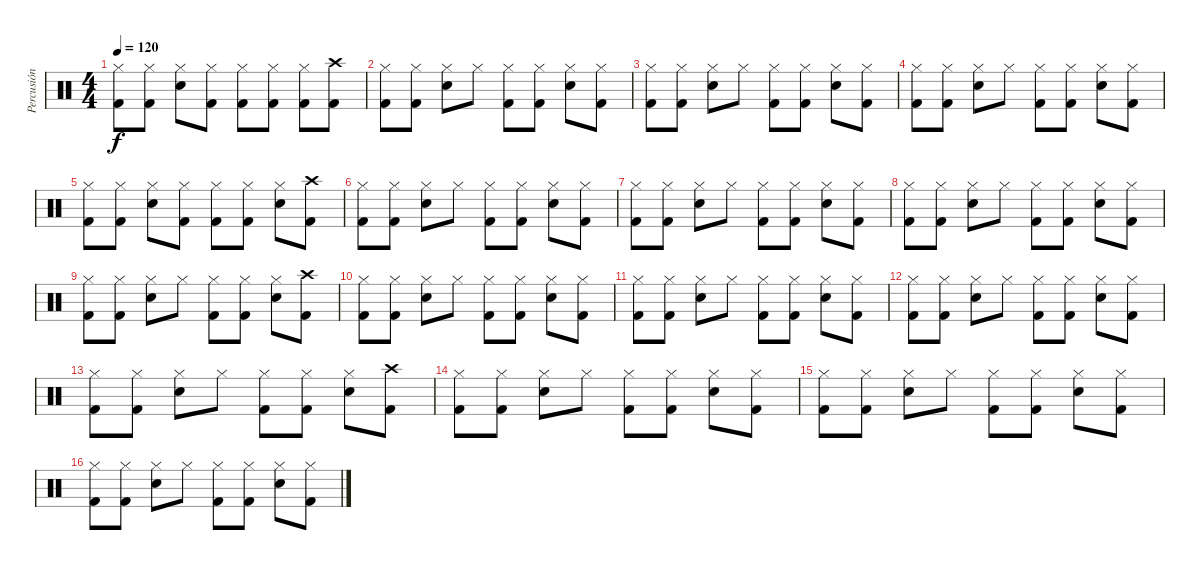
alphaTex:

\track ("Percusión" "Percusión") {instrument percussion}
\staff {score}
\articulation defaults
\ts (4 4)
\tempo 120
\clef neutral
\ks c
("Hi-Hat (closed)" "Kick (hit) 2").8{dy f} ("Hi-Hat (closed)" "Kick (hit) 2").8 ("Hi-Hat (closed)" "Snare (hit) 2").8 ("Hi-Hat (closed)" "Kick (hit) 2").8 ("Hi-Hat (closed)" "Kick (hit) 2").8 ("Hi-Hat (closed)" "Kick (hit) 2").8 ("Hi-Hat (closed)" "Kick (hit) 2").8 ("Crash high (hit)" "Kick (hit) 2").8 |
("Hi-Hat (closed)" "Kick (hit) 2").8 ("Hi-Hat (closed)" "Kick (hit) 2").8 ("Hi-Hat (closed)" "Snare (hit) 2").8 "Hi-Hat (closed)".8 ("Hi-Hat (closed)" "Kick (hit) 2").8 ("Hi-Hat (closed)" "Kick (hit) 2").8 ("Hi-Hat (closed)" "Snare (hit) 2").8 ("Hi-Hat (closed)" "Kick (hit) 2").8 |
("Hi-Hat (closed)" "Kick (hit) 2").8 ("Hi-Hat (closed)" "Kick (hit) 2").8 ("Hi-Hat (closed)" "Snare (hit) 2").8 "Hi-Hat (closed)".8 ("Hi-Hat (closed)" "Kick (hit) 2").8 ("Hi-Hat (closed)" "Kick (hit) 2").8 ("Hi-Hat (closed)" "Snare (hit) 2").8 ("Hi-Hat (closed)" "Kick (hit) 2").8 |
("Hi-Hat (closed)" "Kick (hit) 2").8 ("Hi-Hat (closed)" "Kick (hit) 2").8 ("Hi-Hat (closed)" "Snare (hit) 2").8 "Hi-Hat (closed)".8 ("Hi-Hat (closed)" "Kick (hit) 2").8 ("Hi-Hat (closed)" "Kick (hit) 2").8 ("Hi-Hat (closed)" "Snare (hit) 2").8 ("Hi-Hat (closed)" "Kick (hit) 2").8 |
("Hi-Hat (closed)" "Kick (hit) 2").8 ("Hi-Hat (closed)" "Kick (hit) 2").8 ("Hi-Hat (closed)" "Snare (hit) 2").8 ("Hi-Hat (closed)" "Kick (hit) 2").8 ("Hi-Hat (closed)" "Kick (hit) 2").8 ("Hi-Hat (closed)" "Kick (hit) 2").8 ("Hi-Hat (closed)" "Snare (hit) 2").8 ("Crash high (hit)" "Kick (hit) 2").8 |
("Hi-Hat (closed)" "Kick (hit) 2").8 ("Hi-Hat (closed)" "Kick (hit) 2").8 ("Hi-Hat (closed)" "Snare (hit) 2").8 "Hi-Hat (closed)".8 ("Hi-Hat (closed)" "Kick (hit) 2").8 ("Hi-Hat (closed)" "Kick (hit) 2").8 ("Hi-Hat (closed)" "Snare (hit) 2").8 ("Hi-Hat (closed)" "Kick (hit) 2").8 |
("Hi-Hat (closed)" "Kick (hit) 2").8 ("Hi-Hat (closed)" "Kick (hit) 2").8 ("Hi-Hat (closed)" "Snare (hit) 2").8 "Hi-Hat (closed)".8 ("Hi-Hat (closed)" "Kick (hit) 2").8 ("Hi-Hat (closed)" "Kick (hit) 2").8 ("Hi-Hat (closed)" "Snare (hit) 2").8 ("Hi-Hat (closed)" "Kick (hit) 2").8 |
("Hi-Hat (closed)" "Kick (hit) 2").8 ("Hi-Hat (closed)" "Kick (hit) 2").8 ("Hi-Hat (closed)" "Snare (hit) 2").8 "Hi-Hat (closed)".8 ("Hi-Hat (closed)" "Kick (hit) 2").8 ("Hi-Hat (closed)" "Kick (hit) 2").8 ("Hi-Hat (closed)" "Snare (hit) 2").8 ("Hi-Hat (closed)" "Kick (hit) 2").8 |
("Hi-Hat (closed)" "Kick (hit) 2").8 ("Hi-Hat (closed)" "Kick (hit) 2").8 ("Hi-Hat (closed)" "Snare (hit) 2").8 "Hi-Hat (closed)".8 ("Hi-Hat (closed)" "Kick (hit) 2").8 ("Hi-Hat (closed)" "Kick (hit) 2").8 ("Hi-Hat (closed)" "Snare (hit) 2").8 ("Crash high (hit)" "Kick (hit) 2").8 |
("Hi-Hat (closed)" "Kick (hit) 2").8 ("Hi-Hat (closed)" "Kick (hit) 2").8 ("Hi-Hat (closed)" "Snare (hit) 2").8 "Hi-Hat (closed)".8 ("Hi-Hat (closed)" "Kick (hit) 2").8 ("Hi-Hat (closed)" "Kick (hit) 2").8 ("Hi-Hat (closed)" "Snare (hit) 2").8 ("Hi-Hat (closed)" "Kick (hit) 2").8 |
("Hi-Hat (closed)" "Kick (hit) 2").8 ("Hi-Hat (closed)" "Kick (hit) 2").8 ("Hi-Hat (closed)" "Snare (hit) 2").8 "Hi-Hat (closed)".8 ("Hi-Hat (closed)" "Kick (hit) 2").8 ("Hi-Hat (closed)" "Kick (hit) 2").8 ("Hi-Hat (closed)" "Snare (hit) 2").8 ("Hi-Hat (closed)" "Kick (hit) 2").8 |
("Hi-Hat (closed)" "Kick (hit) 2").8 ("Hi-Hat (closed)" "Kick (hit) 2").8 ("Hi-Hat (closed)" "Snare (hit) 2").8 "Hi-Hat (closed)".8 ("Hi-Hat (closed)" "Kick (hit) 2").8 ("Hi-Hat (closed)" "Kick (hit) 2").8 ("Hi-Hat (closed)" "Snare (hit) 2").8 ("Hi-Hat (closed)" "Kick (hit) 2").8 |
("Hi-Hat (closed)" "Kick (hit) 2").8 ("Hi-Hat (closed)" "Kick (hit) 2").8 ("Hi-Hat (closed)" "Snare (hit) 2").8 "Hi-Hat (closed)".8 ("Hi-Hat (closed)" "Kick (hit) 2").8 ("Hi-Hat (closed)" "Kick (hit) 2").8 ("Hi-Hat (closed)" "Snare (hit) 2").8 ("Crash high (hit)" "Kick (hit) 2").8 |
("Hi-Hat (closed)" "Kick (hit) 2").8 ("Hi-Hat (closed)" "Kick (hit) 2").8 ("Hi-Hat (closed)" "Snare (hit) 2").8 "Hi-Hat (closed)".8 ("Hi-Hat (closed)" "Kick (hit) 2").8 ("Hi-Hat (closed)" "Kick (hit) 2").8 ("Hi-Hat (closed)" "Snare (hit) 2").8 ("Hi-Hat (closed)" "Kick (hit) 2").8 |
("Hi-Hat (closed)" "Kick (hit) 2").8 ("Hi-Hat (closed)" "Kick (hit) 2").8 ("Hi-Hat (closed)" "Snare (hit) 2").8 "Hi-Hat (closed)".8 ("Hi-Hat (closed)" "Kick (hit) 2").8 ("Hi-Hat (closed)" "Kick (hit) 2").8 ("Hi-Hat (closed)" "Snare (hit) 2").8 ("Hi-Hat (closed)" "Kick (hit) 2").8 |
("Hi-Hat (closed)" "Kick (hit) 2").8 ("Hi-Hat (closed)" "Kick (hit) 2").8 ("Hi-Hat (closed)" "Snare (hit) 2").8 "Hi-Hat (closed)".8 ("Hi-Hat (closed)" "Kick (hit) 2").8 ("Hi-Hat (closed)" "Kick (hit) 2").8 ("Hi-Hat (closed)" "Snare (hit) 2").8 ("Hi-Hat (closed)" "Kick (hit) 2").8
